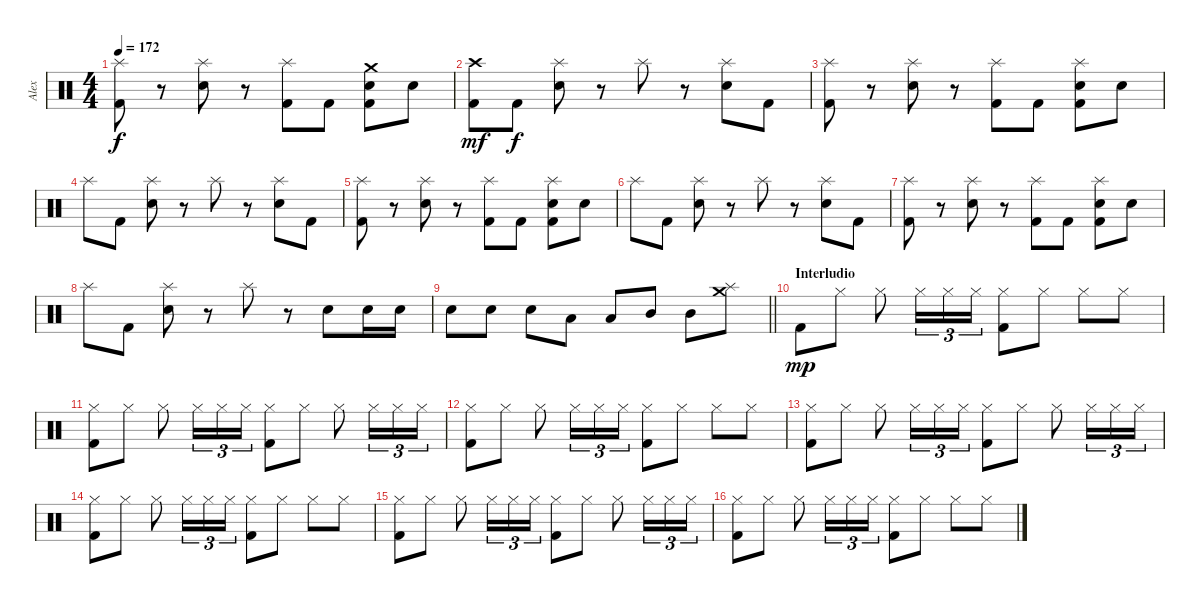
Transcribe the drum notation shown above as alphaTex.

\track ("Alex" "Alex") {instrument percussion}
\staff {score}
\articulation defaults
\ts (4 4)
\tempo 172
\clef neutral
\ks c
("Splash (hit)" "Kick (hit) 2").8{dy f} r.8 ("Splash (hit)" "Electric Snare (hit)").8 r.8 ("Splash (hit)" "Kick (hit) 2").8 "Kick (hit) 2".8 ("Crash medium (hit)" "Electric Snare (hit)" "Kick (hit) 2").8 "Electric Snare (hit)".8 |
("Crash high (hit)" "Kick (hit) 2").8{dy mf} "Kick (hit) 2".8{dy f} ("Splash (hit)" "Electric Snare (hit)").8 r.8 "Splash (hit)".8 r.8 ("Splash (hit)" "Electric Snare (hit)").8 "Kick (hit) 2".8 |
("Splash (hit)" "Kick (hit) 2").8 r.8 ("Splash (hit)" "Electric Snare (hit)").8 r.8 ("Splash (hit)" "Kick (hit) 2").8 "Kick (hit) 2".8 ("Splash (hit)" "Electric Snare (hit)" "Kick (hit) 2").8 "Electric Snare (hit)".8 |
"Splash (hit)".8 "Kick (hit) 2".8 ("Splash (hit)" "Electric Snare (hit)").8 r.8 "Splash (hit)".8 r.8 ("Splash (hit)" "Electric Snare (hit)").8 "Kick (hit) 2".8 |
("Splash (hit)" "Kick (hit) 2").8 r.8 ("Splash (hit)" "Electric Snare (hit)").8 r.8 ("Splash (hit)" "Kick (hit) 2").8 "Kick (hit) 2".8 ("Splash (hit)" "Electric Snare (hit)" "Kick (hit) 2").8 "Electric Snare (hit)".8 |
"Splash (hit)".8 "Kick (hit) 2".8 ("Splash (hit)" "Electric Snare (hit)").8 r.8 "Splash (hit)".8 r.8 ("Splash (hit)" "Electric Snare (hit)").8 "Kick (hit) 2".8 |
("Splash (hit)" "Kick (hit) 2").8 r.8 ("Splash (hit)" "Electric Snare (hit)").8 r.8 ("Splash (hit)" "Kick (hit) 2").8 "Kick (hit) 2".8 ("Splash (hit)" "Electric Snare (hit)" "Kick (hit) 2").8 "Electric Snare (hit)".8 |
"Splash (hit)".8 "Kick (hit) 2".8 ("Splash (hit)" "Electric Snare (hit)").8 r.8 "Splash (hit)".8 r.8 "Electric Snare (hit)".8 "Electric Snare (hit)".16 "Electric Snare (hit)".16 |
\barLineRight lightlight "Electric Snare (hit)".8 "Electric Snare (hit)".8 "Electric Snare (hit)".8 "Low Tom (hit)".8 "Low Tom (hit)".8 "Mid Tom (hit)".8 "Mid Tom (hit)".8
("Crash medium (hit)" "Splash (hit)").8 |
\section ("" "Interludio")
"Kick (hit) 2".8{dy mp} "Hi-Hat (closed)".8 "Hi-Hat (closed)".8 "Hi-Hat (closed)".16{tu (3 2)} "Hi-Hat (closed)".16{tu (3 2)} "Hi-Hat (closed)".16{tu (3 2)} ("Hi-Hat (closed)" "Kick (hit) 2").8 "Hi-Hat (closed)".8 "Hi-Hat (closed)".8 "Hi-Hat (closed)".8 |
("Hi-Hat (closed)" "Kick (hit) 2").8 "Hi-Hat (closed)".8 "Hi-Hat (closed)".8 "Hi-Hat (closed)".16{tu (3 2)} "Hi-Hat (closed)".16{tu (3 2)} "Hi-Hat (closed)".16{tu (3 2)} ("Hi-Hat (closed)" "Kick (hit) 2").8 "Hi-Hat (closed)".8 "Hi-Hat (closed)".8 "Hi-Hat (closed)".16{tu (3 2)} "Hi-Hat (closed)".16{tu (3 2)} "Hi-Hat (closed)".16{tu (3 2)} |
("Hi-Hat (closed)" "Kick (hit) 2").8 "Hi-Hat (closed)".8 "Hi-Hat (closed)".8 "Hi-Hat (closed)".16{tu (3 2)} "Hi-Hat (closed)".16{tu (3 2)} "Hi-Hat (closed)".16{tu (3 2)} ("Hi-Hat (closed)" "Kick (hit) 2").8 "Hi-Hat (closed)".8 "Hi-Hat (closed)".8 "Hi-Hat (closed)".8 |
("Hi-Hat (closed)" "Kick (hit) 2").8 "Hi-Hat (closed)".8 "Hi-Hat (closed)".8 "Hi-Hat (closed)".16{tu (3 2)} "Hi-Hat (closed)".16{tu (3 2)} "Hi-Hat (closed)".16{tu (3 2)} ("Hi-Hat (closed)" "Kick (hit) 2").8 "Hi-Hat (closed)".8 "Hi-Hat (closed)".8 "Hi-Hat (closed)".16{tu (3 2)} "Hi-Hat (closed)".16{tu (3 2)} "Hi-Hat (closed)".16{tu (3 2)} |
("Hi-Hat (closed)" "Kick (hit) 2").8 "Hi-Hat (closed)".8 "Hi-Hat (closed)".8 "Hi-Hat (closed)".16{tu (3 2)} "Hi-Hat (closed)".16{tu (3 2)} "Hi-Hat (closed)".16{tu (3 2)} ("Hi-Hat (closed)" "Kick (hit) 2").8 "Hi-Hat (closed)".8 "Hi-Hat (closed)".8 "Hi-Hat (closed)".8 |
("Hi-Hat (closed)" "Kick (hit) 2").8 "Hi-Hat (closed)".8 "Hi-Hat (closed)".8 "Hi-Hat (closed)".16{tu (3 2)} "Hi-Hat (closed)".16{tu (3 2)} "Hi-Hat (closed)".16{tu (3 2)} ("Hi-Hat (closed)" "Kick (hit) 2").8 "Hi-Hat (closed)".8 "Hi-Hat (closed)".8 "Hi-Hat (closed)".16{tu (3 2)} "Hi-Hat (closed)".16{tu (3 2)} "Hi-Hat (closed)".16{tu (3 2)} |
("Hi-Hat (closed)" "Kick (hit) 2").8 "Hi-Hat (closed)".8 "Hi-Hat (closed)".8 "Hi-Hat (closed)".16{tu (3 2)} "Hi-Hat (closed)".16{tu (3 2)} "Hi-Hat (closed)".16{tu (3 2)} ("Hi-Hat (closed)" "Kick (hit) 2").8 "Hi-Hat (closed)".8 "Hi-Hat (closed)".8 "Hi-Hat (closed)".8
